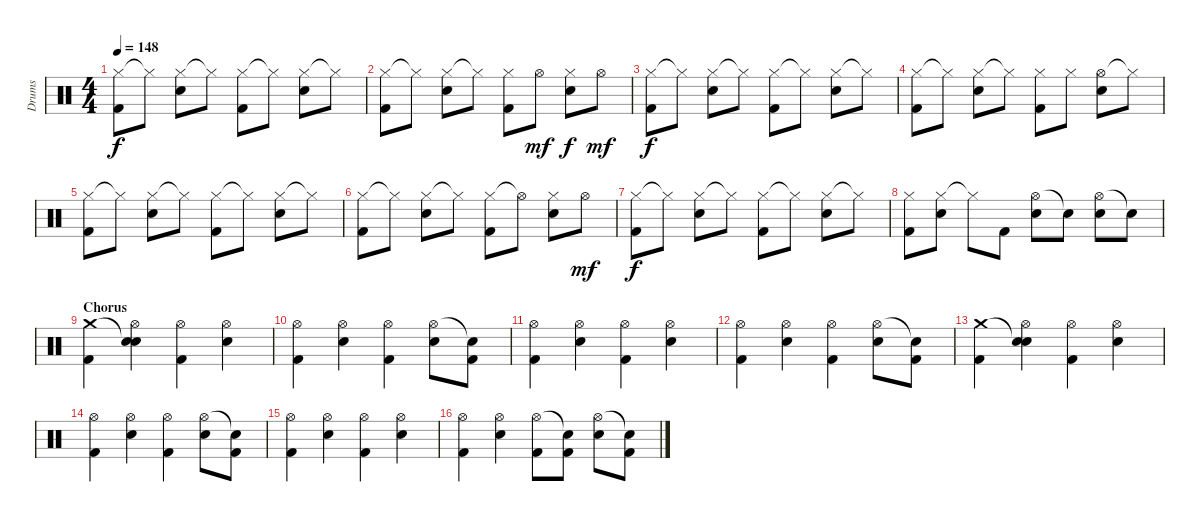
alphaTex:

\track ("Drums" "Drums") {instrument percussion}
\staff {score}
\articulation defaults
\ts (4 4)
\tempo 148
\clef neutral
\ks c
("Hi-Hat (closed)" "Kick (hit) 2").8{dy f} "Hi-Hat (closed)"{t}.8 ("Hi-Hat (closed)" "Electric Snare (hit)").8 "Hi-Hat (closed)"{t}.8 ("Hi-Hat (closed)" "Kick (hit) 2").8 "Hi-Hat (closed)"{t}.8 ("Hi-Hat (closed)" "Electric Snare (hit)").8 "Hi-Hat (closed)"{t}.8 |
("Hi-Hat (closed)" "Kick (hit) 2").8 "Hi-Hat (closed)"{t}.8 ("Hi-Hat (closed)" "Electric Snare (hit)").8 "Hi-Hat (closed)"{t}.8 ("Hi-Hat (closed)" "Kick (hit) 2").8 "Hi-Hat (open)".8{dy mf} ("Hi-Hat (closed)" "Electric Snare (hit)").8{dy f} "Hi-Hat (open)".8{dy mf} |
("Hi-Hat (closed)" "Kick (hit) 2").8{dy f} "Hi-Hat (closed)"{t}.8 ("Hi-Hat (closed)" "Electric Snare (hit)").8 "Hi-Hat (closed)"{t}.8 ("Hi-Hat (closed)" "Kick (hit) 2").8 "Hi-Hat (closed)"{t}.8 ("Hi-Hat (closed)" "Electric Snare (hit)").8 "Hi-Hat (closed)"{t}.8 |
("Hi-Hat (closed)" "Kick (hit) 2").8 "Hi-Hat (closed)"{t}.8 ("Hi-Hat (closed)" "Electric Snare (hit)").8 "Hi-Hat (closed)"{t}.8 ("Hi-Hat (closed)" "Kick (hit) 2").8 "Hi-Hat (closed)".8 ("Hi-Hat (open)" "Electric Snare (hit)").8 "Hi-Hat (closed)"{t}.8 |
("Hi-Hat (closed)" "Kick (hit) 2").8 "Hi-Hat (closed)"{t}.8 ("Hi-Hat (closed)" "Electric Snare (hit)").8 "Hi-Hat (closed)"{t}.8 ("Hi-Hat (closed)" "Kick (hit) 2").8 "Hi-Hat (closed)"{t}.8 ("Hi-Hat (closed)" "Electric Snare (hit)").8 "Hi-Hat (closed)"{t}.8 |
("Hi-Hat (closed)" "Kick (hit) 2").8 "Hi-Hat (closed)"{t}.8 ("Hi-Hat (closed)" "Electric Snare (hit)").8 "Hi-Hat (closed)"{t}.8 ("Hi-Hat (closed)" "Kick (hit) 2").8 "Hi-Hat (open)"{t}.8 ("Hi-Hat (closed)" "Electric Snare (hit)").8 "Hi-Hat (open)".8{dy mf} |
("Hi-Hat (closed)" "Kick (hit) 2").8{dy f} "Hi-Hat (closed)"{t}.8 ("Hi-Hat (closed)" "Electric Snare (hit)").8 "Hi-Hat (closed)"{t}.8 ("Hi-Hat (closed)" "Kick (hit) 2").8 "Hi-Hat (closed)"{t}.8 ("Hi-Hat (closed)" "Electric Snare (hit)").8 "Hi-Hat (closed)"{t}.8 |
("Hi-Hat (closed)" "Kick (hit) 2").8 ("Hi-Hat (closed)" "Electric Snare (hit)").8 "Hi-Hat (closed)"{t}.8 "Kick (hit) 2".8 ("Hi-Hat (open)" "Electric Snare (hit)").8 "Snare (hit)"{t}.8 ("Hi-Hat (open)" "Electric Snare (hit)").8 "Snare (hit)"{t}.8 |
\section ("" "Chorus")
("Crash medium (hit)" "Kick (hit) 2").4 ("Snare (hit)"{t} "Hi-Hat (open)" "Electric Snare (hit)").4 ("Hi-Hat (open)" "Kick (hit) 2").4 ("Hi-Hat (open)" "Electric Snare (hit)").4 |
("Hi-Hat (open)" "Kick (hit) 2").4 ("Hi-Hat (open)" "Electric Snare (hit)").4 ("Hi-Hat (open)" "Kick (hit) 2").4 ("Hi-Hat (open)" "Electric Snare (hit)").8 ("Snare (hit)"{t} "Kick (hit) 2").8 |
("Hi-Hat (open)" "Kick (hit) 2").4 ("Hi-Hat (open)" "Electric Snare (hit)").4 ("Hi-Hat (open)" "Kick (hit) 2").4 ("Hi-Hat (open)" "Electric Snare (hit)").4 |
("Hi-Hat (open)" "Kick (hit) 2").4 ("Hi-Hat (open)" "Electric Snare (hit)").4 ("Hi-Hat (open)" "Kick (hit) 2").4 ("Hi-Hat (open)" "Electric Snare (hit)").8 ("Snare (hit)"{t} "Kick (hit) 2").8 |
("Crash medium (hit)" "Kick (hit) 2").4 ("Snare (hit)"{t} "Hi-Hat (open)" "Electric Snare (hit)").4 ("Hi-Hat (open)" "Kick (hit) 2").4 ("Hi-Hat (open)" "Electric Snare (hit)").4 |
("Hi-Hat (open)" "Kick (hit) 2").4 ("Hi-Hat (open)" "Electric Snare (hit)").4 ("Hi-Hat (open)" "Kick (hit) 2").4 ("Hi-Hat (open)" "Electric Snare (hit)").8 ("Snare (hit)"{t} "Kick (hit) 2").8 |
("Hi-Hat (open)" "Kick (hit) 2").4 ("Hi-Hat (open)" "Electric Snare (hit)").4 ("Hi-Hat (open)" "Kick (hit) 2").4 ("Hi-Hat (open)" "Electric Snare (hit)").4 |
("Hi-Hat (open)" "Kick (hit) 2").4 ("Hi-Hat (open)" "Electric Snare (hit)").4 ("Hi-Hat (open)" "Kick (hit) 2").8 ("Snare (hit)"{t} "Kick (hit) 2").8 ("Hi-Hat (open)" "Electric Snare (hit)").8 ("Snare (hit)"{t} "Kick (hit) 2").8
